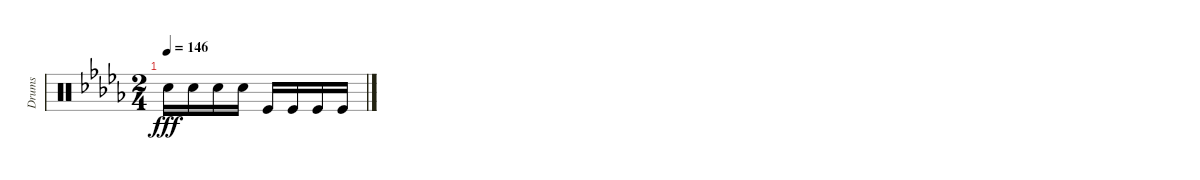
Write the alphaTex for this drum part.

\track ("Drums" "Drums") {instrument percussion}
\staff {score}
\articulation defaults
\ts (2 4)
\tempo 146
\clef neutral
\ks db "Snare (hit) 2".16{dy fff} "Snare (hit) 2".16 "Snare (hit) 2".16 "Snare (hit) 2".16 "Kick (hit)".16 "Kick (hit)".16 "Kick (hit)".16 "Kick (hit)".16
